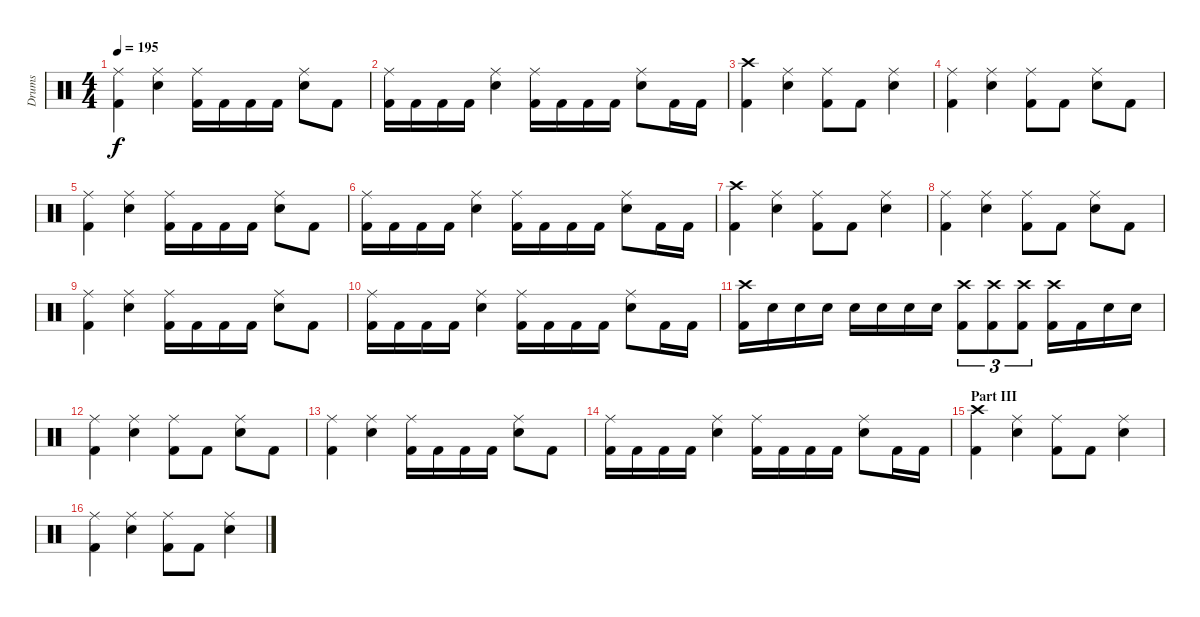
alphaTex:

\track ("Drums" "Drums") {instrument percussion}
\staff {score}
\articulation defaults
\ts (4 4)
\tempo 195
\clef neutral
\ks c
("Ride (middle)" "Kick (hit) 2").4{dy f} ("Ride (middle)" "Snare (hit) 2").4 ("Ride (middle)" "Kick (hit) 2").16 "Kick (hit) 2".16 "Kick (hit) 2".16 "Kick (hit) 2".16 ("Ride (middle)" "Snare (hit) 2").8 "Kick (hit) 2".8 |
("Ride (middle)" "Kick (hit) 2").16 "Kick (hit) 2".16 "Kick (hit) 2".16 "Kick (hit) 2".16 ("Ride (middle)" "Snare (hit) 2").4 ("Ride (middle)" "Kick (hit) 2").16 "Kick (hit) 2".16 "Kick (hit) 2".16 "Kick (hit) 2".16 ("Ride (middle)" "Snare (hit) 2").8 "Kick (hit) 2".16 "Kick (hit) 2".16 |
("Crash high (hit)" "Kick (hit) 2").4 ("Ride (middle)" "Snare (hit) 2").4 ("Ride (middle)" "Kick (hit) 2").8 "Kick (hit) 2".8 ("Ride (middle)" "Snare (hit) 2").4 |
("Ride (middle)" "Kick (hit) 2").4 ("Ride (middle)" "Snare (hit) 2").4 ("Ride (middle)" "Kick (hit) 2").8 "Kick (hit) 2".8 ("Ride (middle)" "Snare (hit) 2").8 "Kick (hit) 2".8 |
("Ride (middle)" "Kick (hit) 2").4 ("Ride (middle)" "Snare (hit) 2").4 ("Ride (middle)" "Kick (hit) 2").16 "Kick (hit) 2".16 "Kick (hit) 2".16 "Kick (hit) 2".16 ("Ride (middle)" "Snare (hit) 2").8 "Kick (hit) 2".8 |
("Ride (middle)" "Kick (hit) 2").16 "Kick (hit) 2".16 "Kick (hit) 2".16 "Kick (hit) 2".16 ("Ride (middle)" "Snare (hit) 2").4 ("Ride (middle)" "Kick (hit) 2").16 "Kick (hit) 2".16 "Kick (hit) 2".16 "Kick (hit) 2".16 ("Ride (middle)" "Snare (hit) 2").8 "Kick (hit) 2".16 "Kick (hit) 2".16 |
("Crash high (hit)" "Kick (hit) 2").4 ("Ride (middle)" "Snare (hit) 2").4 ("Ride (middle)" "Kick (hit) 2").8 "Kick (hit) 2".8 ("Ride (middle)" "Snare (hit) 2").4 |
("Ride (middle)" "Kick (hit) 2").4 ("Ride (middle)" "Snare (hit) 2").4 ("Ride (middle)" "Kick (hit) 2").8 "Kick (hit) 2".8 ("Ride (middle)" "Snare (hit) 2").8 "Kick (hit) 2".8 |
("Ride (middle)" "Kick (hit) 2").4 ("Ride (middle)" "Snare (hit) 2").4 ("Ride (middle)" "Kick (hit) 2").16 "Kick (hit) 2".16 "Kick (hit) 2".16 "Kick (hit) 2".16 ("Ride (middle)" "Snare (hit) 2").8 "Kick (hit) 2".8 |
("Ride (middle)" "Kick (hit) 2").16 "Kick (hit) 2".16 "Kick (hit) 2".16 "Kick (hit) 2".16 ("Ride (middle)" "Snare (hit) 2").4 ("Ride (middle)" "Kick (hit) 2").16 "Kick (hit) 2".16 "Kick (hit) 2".16 "Kick (hit) 2".16 ("Ride (middle)" "Snare (hit) 2").8 "Kick (hit) 2".16 "Kick (hit) 2".16 |
("Crash high (hit)" "Kick (hit) 2").16 "Snare (hit) 2".16 "Snare (hit) 2".16 "Snare (hit) 2".16 "Snare (hit) 2".16 "Snare (hit) 2".16 "Snare (hit) 2".16 "Snare (hit) 2".16 ("Crash high (hit)" "Kick (hit) 2").8{tu (3 2)} ("Crash high (hit)" "Kick (hit) 2").8{tu (3 2)} ("Crash high (hit)" "Kick (hit) 2").8{tu (3 2)} ("Crash high (hit)" "Kick (hit) 2").16 "Kick (hit) 2".16 "Snare (hit) 2".16 "Snare (hit) 2".16 |
("Ride (middle)" "Kick (hit) 2").4 ("Ride (middle)" "Snare (hit) 2").4 ("Ride (middle)" "Kick (hit) 2").8 "Kick (hit) 2".8 ("Ride (middle)" "Snare (hit) 2").8 "Kick (hit) 2".8 |
("Ride (middle)" "Kick (hit) 2").4 ("Ride (middle)" "Snare (hit) 2").4 ("Ride (middle)" "Kick (hit) 2").16 "Kick (hit) 2".16 "Kick (hit) 2".16 "Kick (hit) 2".16 ("Ride (middle)" "Snare (hit) 2").8 "Kick (hit) 2".8 |
("Ride (middle)" "Kick (hit) 2").16 "Kick (hit) 2".16 "Kick (hit) 2".16 "Kick (hit) 2".16 ("Ride (middle)" "Snare (hit) 2").4 ("Ride (middle)" "Kick (hit) 2").16 "Kick (hit) 2".16 "Kick (hit) 2".16 "Kick (hit) 2".16 ("Ride (middle)" "Snare (hit) 2").8 "Kick (hit) 2".16 "Kick (hit) 2".16 |
\section ("" "Part III")
("Crash high (hit)" "Kick (hit) 2").4 ("Ride (middle)" "Snare (hit) 2").4 ("Ride (middle)" "Kick (hit) 2").8 "Kick (hit) 2".8 ("Ride (middle)" "Snare (hit) 2").4 |
("Ride (middle)" "Kick (hit) 2").4 ("Ride (middle)" "Snare (hit) 2").4 ("Ride (middle)" "Kick (hit) 2").8 "Kick (hit) 2".8 ("Ride (middle)" "Snare (hit) 2").4
